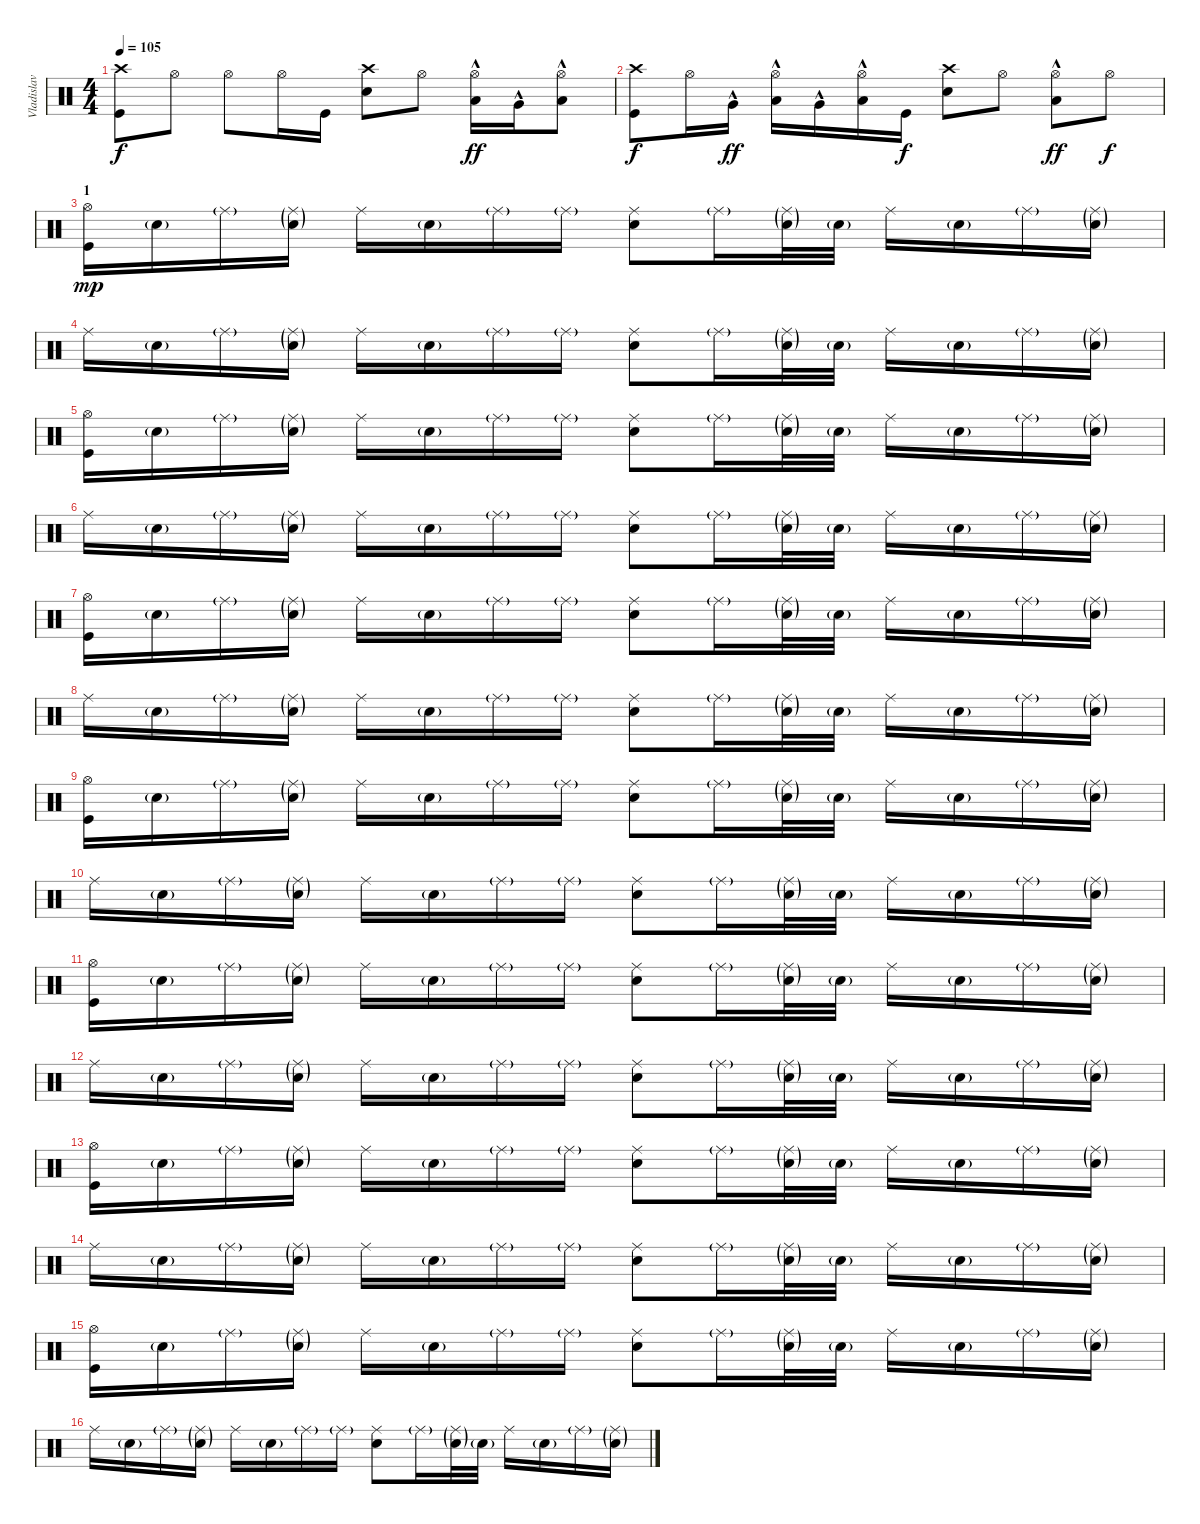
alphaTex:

\track ("Vladislav Ulasevish" "Vladislav ") {instrument percussion}
\staff {score}
\articulation defaults
\ts (4 4)
\tempo 105
\clef neutral
\ks c
("Kick (hit)" "Crash high (hit)").8{dy f} "Hi-Hat (open)".8 "Hi-Hat (open)".8 "Hi-Hat (open)".16 "Kick (hit)".16 ("Snare (hit) 2" "Crash high (hit)").8 "Hi-Hat (open)".8 ("Hi-Hat (open)" "Low Tom (hit)"{hac}).16{dy ff} "Very Low Tom (hit)"{hac}.16 ("Hi-Hat (open)" "Low Floor Tom (hit)"{hac}).8 |
("Kick (hit)" "Crash high (hit)").8{dy f} "Hi-Hat (open)".16 "Very Low Tom (hit)"{hac}.16{dy ff} ("Hi-Hat (open)" "Low Tom (hit)"{hac}).16 "Very Low Tom (hit)"{hac}.16 ("Hi-Hat (open)" "Low Floor Tom (hit)"{hac}).16 "Kick (hit)".16{dy f} ("Snare (hit) 2" "Crash high (hit)").8 "Hi-Hat (open)".8 ("Hi-Hat (open)" "Low Floor Tom (hit)"{hac}).8{dy ff} "Hi-Hat (open)".8{dy f} |
\section ("" "1")
("Kick (hit)" "Hi-Hat (open)").16{dy mp} "Snare (hit) 2"{g}.16 "Ride (middle)"{g}.16 ("Snare (hit) 2"{g} "Ride (middle)"{g}).16 "Ride (middle)".16 "Snare (hit) 2"{g}.16 "Ride (middle)"{g}.16 "Ride (middle)"{g}.16 ("Ride (middle)" "Snare (hit) 2").8 "Ride (middle)"{g}.16 ("Ride (middle)"{g} "Snare (hit) 2"{g}).32 "Snare (hit) 2"{g}.32 "Ride (middle)".16 "Snare (hit) 2"{g}.16 "Ride (middle)"{g}.16 ("Ride (middle)"{g} "Snare (hit) 2"{g}).16 |
"Ride (middle)".16 "Snare (hit) 2"{g}.16 "Ride (middle)"{g}.16 ("Ride (middle)"{g} "Snare (hit) 2"{g}).16 "Ride (middle)".16 "Snare (hit) 2"{g}.16 "Ride (middle)"{g}.16 "Ride (middle)"{g}.16 ("Ride (middle)" "Snare (hit) 2").8 "Ride (middle)"{g}.16 ("Ride (middle)"{g} "Snare (hit) 2"{g}).32 "Snare (hit) 2"{g}.32 "Ride (middle)".16 "Snare (hit) 2"{g}.16 "Ride (middle)"{g}.16 ("Ride (middle)"{g} "Snare (hit) 2"{g}).16 |
("Kick (hit)" "Hi-Hat (open)").16 "Snare (hit) 2"{g}.16 "Ride (middle)"{g}.16 ("Snare (hit) 2"{g} "Ride (middle)"{g}).16 "Ride (middle)".16 "Snare (hit) 2"{g}.16 "Ride (middle)"{g}.16 "Ride (middle)"{g}.16 ("Ride (middle)" "Snare (hit) 2").8 "Ride (middle)"{g}.16 ("Ride (middle)"{g} "Snare (hit) 2"{g}).32 "Snare (hit) 2"{g}.32 "Ride (middle)".16 "Snare (hit) 2"{g}.16 "Ride (middle)"{g}.16 ("Ride (middle)"{g} "Snare (hit) 2"{g}).16 |
"Ride (middle)".16 "Snare (hit) 2"{g}.16 "Ride (middle)"{g}.16 ("Ride (middle)"{g} "Snare (hit) 2"{g}).16 "Ride (middle)".16 "Snare (hit) 2"{g}.16 "Ride (middle)"{g}.16 "Ride (middle)"{g}.16 ("Ride (middle)" "Snare (hit) 2").8 "Ride (middle)"{g}.16 ("Ride (middle)"{g} "Snare (hit) 2"{g}).32 "Snare (hit) 2"{g}.32 "Ride (middle)".16 "Snare (hit) 2"{g}.16 "Ride (middle)"{g}.16 ("Ride (middle)"{g} "Snare (hit) 2"{g}).16 |
("Kick (hit)" "Hi-Hat (open)").16 "Snare (hit) 2"{g}.16 "Ride (middle)"{g}.16 ("Snare (hit) 2"{g} "Ride (middle)"{g}).16 "Ride (middle)".16 "Snare (hit) 2"{g}.16 "Ride (middle)"{g}.16 "Ride (middle)"{g}.16 ("Ride (middle)" "Snare (hit) 2").8 "Ride (middle)"{g}.16 ("Ride (middle)"{g} "Snare (hit) 2"{g}).32 "Snare (hit) 2"{g}.32 "Ride (middle)".16 "Snare (hit) 2"{g}.16 "Ride (middle)"{g}.16 ("Ride (middle)"{g} "Snare (hit) 2"{g}).16 |
"Ride (middle)".16 "Snare (hit) 2"{g}.16 "Ride (middle)"{g}.16 ("Ride (middle)"{g} "Snare (hit) 2"{g}).16 "Ride (middle)".16 "Snare (hit) 2"{g}.16 "Ride (middle)"{g}.16 "Ride (middle)"{g}.16 ("Ride (middle)" "Snare (hit) 2").8 "Ride (middle)"{g}.16 ("Ride (middle)"{g} "Snare (hit) 2"{g}).32 "Snare (hit) 2"{g}.32 "Ride (middle)".16 "Snare (hit) 2"{g}.16 "Ride (middle)"{g}.16 ("Ride (middle)"{g} "Snare (hit) 2"{g}).16 |
("Kick (hit)" "Hi-Hat (open)").16 "Snare (hit) 2"{g}.16 "Ride (middle)"{g}.16 ("Snare (hit) 2"{g} "Ride (middle)"{g}).16 "Ride (middle)".16 "Snare (hit) 2"{g}.16 "Ride (middle)"{g}.16 "Ride (middle)"{g}.16 ("Ride (middle)" "Snare (hit) 2").8 "Ride (middle)"{g}.16 ("Ride (middle)"{g} "Snare (hit) 2"{g}).32 "Snare (hit) 2"{g}.32 "Ride (middle)".16 "Snare (hit) 2"{g}.16 "Ride (middle)"{g}.16 ("Ride (middle)"{g} "Snare (hit) 2"{g}).16 |
"Ride (middle)".16 "Snare (hit) 2"{g}.16 "Ride (middle)"{g}.16 ("Ride (middle)"{g} "Snare (hit) 2"{g}).16 "Ride (middle)".16 "Snare (hit) 2"{g}.16 "Ride (middle)"{g}.16 "Ride (middle)"{g}.16 ("Ride (middle)" "Snare (hit) 2").8 "Ride (middle)"{g}.16 ("Ride (middle)"{g} "Snare (hit) 2"{g}).32 "Snare (hit) 2"{g}.32 "Ride (middle)".16 "Snare (hit) 2"{g}.16 "Ride (middle)"{g}.16 ("Ride (middle)"{g} "Snare (hit) 2"{g}).16 |
("Kick (hit)" "Hi-Hat (open)").16 "Snare (hit) 2"{g}.16 "Ride (middle)"{g}.16 ("Snare (hit) 2"{g} "Ride (middle)"{g}).16 "Ride (middle)".16 "Snare (hit) 2"{g}.16 "Ride (middle)"{g}.16 "Ride (middle)"{g}.16 ("Ride (middle)" "Snare (hit) 2").8 "Ride (middle)"{g}.16 ("Ride (middle)"{g} "Snare (hit) 2"{g}).32 "Snare (hit) 2"{g}.32 "Ride (middle)".16 "Snare (hit) 2"{g}.16 "Ride (middle)"{g}.16 ("Ride (middle)"{g} "Snare (hit) 2"{g}).16 |
"Ride (middle)".16 "Snare (hit) 2"{g}.16 "Ride (middle)"{g}.16 ("Ride (middle)"{g} "Snare (hit) 2"{g}).16 "Ride (middle)".16 "Snare (hit) 2"{g}.16 "Ride (middle)"{g}.16 "Ride (middle)"{g}.16 ("Ride (middle)" "Snare (hit) 2").8 "Ride (middle)"{g}.16 ("Ride (middle)"{g} "Snare (hit) 2"{g}).32 "Snare (hit) 2"{g}.32 "Ride (middle)".16 "Snare (hit) 2"{g}.16 "Ride (middle)"{g}.16 ("Ride (middle)"{g} "Snare (hit) 2"{g}).16 |
("Kick (hit)" "Hi-Hat (open)").16 "Snare (hit) 2"{g}.16 "Ride (middle)"{g}.16 ("Snare (hit) 2"{g} "Ride (middle)"{g}).16 "Ride (middle)".16 "Snare (hit) 2"{g}.16 "Ride (middle)"{g}.16 "Ride (middle)"{g}.16 ("Ride (middle)" "Snare (hit) 2").8 "Ride (middle)"{g}.16 ("Ride (middle)"{g} "Snare (hit) 2"{g}).32 "Snare (hit) 2"{g}.32 "Ride (middle)".16 "Snare (hit) 2"{g}.16 "Ride (middle)"{g}.16 ("Ride (middle)"{g} "Snare (hit) 2"{g}).16 |
"Ride (middle)".16 "Snare (hit) 2"{g}.16 "Ride (middle)"{g}.16 ("Ride (middle)"{g} "Snare (hit) 2"{g}).16 "Ride (middle)".16 "Snare (hit) 2"{g}.16 "Ride (middle)"{g}.16 "Ride (middle)"{g}.16 ("Ride (middle)" "Snare (hit) 2").8 "Ride (middle)"{g}.16 ("Ride (middle)"{g} "Snare (hit) 2"{g}).32 "Snare (hit) 2"{g}.32 "Ride (middle)".16 "Snare (hit) 2"{g}.16 "Ride (middle)"{g}.16 ("Ride (middle)"{g} "Snare (hit) 2"{g}).16 |
("Kick (hit)" "Hi-Hat (open)").16 "Snare (hit) 2"{g}.16 "Ride (middle)"{g}.16 ("Snare (hit) 2"{g} "Ride (middle)"{g}).16 "Ride (middle)".16 "Snare (hit) 2"{g}.16 "Ride (middle)"{g}.16 "Ride (middle)"{g}.16 ("Ride (middle)" "Snare (hit) 2").8 "Ride (middle)"{g}.16 ("Ride (middle)"{g} "Snare (hit) 2"{g}).32 "Snare (hit) 2"{g}.32 "Ride (middle)".16 "Snare (hit) 2"{g}.16 "Ride (middle)"{g}.16 ("Ride (middle)"{g} "Snare (hit) 2"{g}).16 |
"Ride (middle)".16 "Snare (hit) 2"{g}.16 "Ride (middle)"{g}.16 ("Ride (middle)"{g} "Snare (hit) 2"{g}).16 "Ride (middle)".16 "Snare (hit) 2"{g}.16 "Ride (middle)"{g}.16 "Ride (middle)"{g}.16 ("Ride (middle)" "Snare (hit) 2").8 "Ride (middle)"{g}.16 ("Ride (middle)"{g} "Snare (hit) 2"{g}).32 "Snare (hit) 2"{g}.32 "Ride (middle)".16 "Snare (hit) 2"{g}.16 "Ride (middle)"{g}.16 ("Ride (middle)"{g} "Snare (hit) 2"{g}).16
